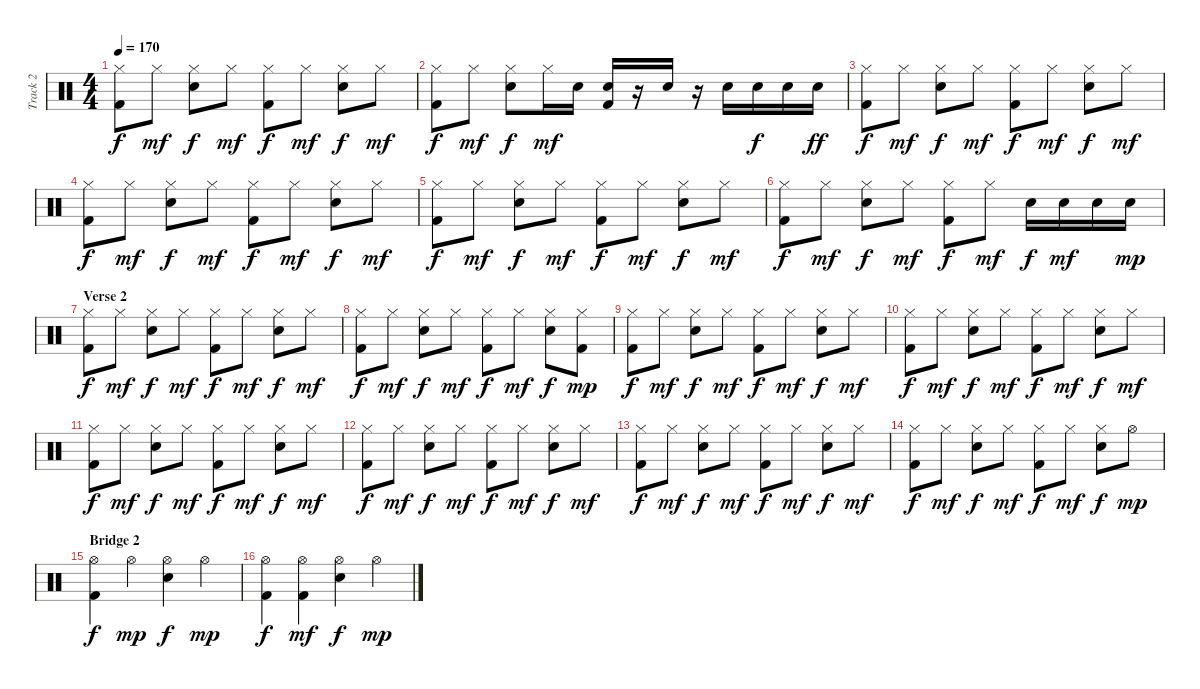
\track ("Track 2" "Track 2") {instrument percussion}
\staff {score}
\articulation defaults
\ts (4 4)
\tempo 170
\clef neutral
\ks c
("Hi-Hat (closed)" "Kick (hit) 2").8{dy f} "Hi-Hat (closed)".8{dy mf} ("Hi-Hat (closed)" "Electric Snare (hit)").8{dy f} "Hi-Hat (closed)".8{dy mf} ("Hi-Hat (closed)" "Kick (hit) 2").8{dy f} "Hi-Hat (closed)".8{dy mf} ("Hi-Hat (closed)" "Electric Snare (hit)").8{dy f} "Hi-Hat (closed)".8{dy mf} |
("Hi-Hat (closed)" "Kick (hit) 2").8{dy f} "Hi-Hat (closed)".8{dy mf} ("Hi-Hat (closed)" "Electric Snare (hit)").8{dy f} "Hi-Hat (closed)".16{dy mf} "Electric Snare (hit)".16 ("Electric Snare (hit)" "Kick (hit) 2").16 r.16 "Electric Snare (hit)".16 r.16 "Electric Snare (hit)".16 "Electric Snare (hit)".16{dy f} "Electric Snare (hit)".16 "Electric Snare (hit)".16{dy ff} |
("Hi-Hat (closed)" "Kick (hit) 2").8{dy f} "Hi-Hat (closed)".8{dy mf} ("Hi-Hat (closed)" "Electric Snare (hit)").8{dy f} "Hi-Hat (closed)".8{dy mf} ("Hi-Hat (closed)" "Kick (hit) 2").8{dy f} "Hi-Hat (closed)".8{dy mf} ("Hi-Hat (closed)" "Electric Snare (hit)").8{dy f} "Hi-Hat (closed)".8{dy mf} |
("Hi-Hat (closed)" "Kick (hit) 2").8{dy f} "Hi-Hat (closed)".8{dy mf} ("Hi-Hat (closed)" "Electric Snare (hit)").8{dy f} "Hi-Hat (closed)".8{dy mf} ("Hi-Hat (closed)" "Kick (hit) 2").8{dy f} "Hi-Hat (closed)".8{dy mf} ("Hi-Hat (closed)" "Electric Snare (hit)").8{dy f} "Hi-Hat (closed)".8{dy mf} |
("Hi-Hat (closed)" "Kick (hit) 2").8{dy f} "Hi-Hat (closed)".8{dy mf} ("Hi-Hat (closed)" "Electric Snare (hit)").8{dy f} "Hi-Hat (closed)".8{dy mf} ("Hi-Hat (closed)" "Kick (hit) 2").8{dy f} "Hi-Hat (closed)".8{dy mf} ("Hi-Hat (closed)" "Electric Snare (hit)").8{dy f} "Hi-Hat (closed)".8{dy mf} |
("Hi-Hat (closed)" "Kick (hit) 2").8{dy f} "Hi-Hat (closed)".8{dy mf} ("Hi-Hat (closed)" "Electric Snare (hit)").8{dy f} "Hi-Hat (closed)".8{dy mf} ("Hi-Hat (closed)" "Kick (hit) 2").8{dy f} "Hi-Hat (closed)".8{dy mf} "Electric Snare (hit)".16{dy f} "Electric Snare (hit)".16{dy mf} "Electric Snare (hit)".16 "Electric Snare (hit)".16{dy mp} |
\section ("" "Verse 2")
("Hi-Hat (closed)" "Kick (hit) 2").8{dy f} "Hi-Hat (closed)".8{dy mf} ("Hi-Hat (closed)" "Electric Snare (hit)").8{dy f} "Hi-Hat (closed)".8{dy mf} ("Hi-Hat (closed)" "Kick (hit) 2").8{dy f} "Hi-Hat (closed)".8{dy mf} ("Hi-Hat (closed)" "Electric Snare (hit)").8{dy f} "Hi-Hat (closed)".8{dy mf} |
("Hi-Hat (closed)" "Kick (hit) 2").8{dy f} "Hi-Hat (closed)".8{dy mf} ("Hi-Hat (closed)" "Electric Snare (hit)").8{dy f} "Hi-Hat (closed)".8{dy mf} ("Hi-Hat (closed)" "Kick (hit) 2").8{dy f} "Hi-Hat (closed)".8{dy mf} ("Hi-Hat (closed)" "Electric Snare (hit)").8{dy f} ("Hi-Hat (closed)" "Kick (hit) 2").8{dy mp} |
("Hi-Hat (closed)" "Kick (hit) 2").8{dy f} "Hi-Hat (closed)".8{dy mf} ("Hi-Hat (closed)" "Electric Snare (hit)").8{dy f} "Hi-Hat (closed)".8{dy mf} ("Hi-Hat (closed)" "Kick (hit) 2").8{dy f} "Hi-Hat (closed)".8{dy mf} ("Hi-Hat (closed)" "Electric Snare (hit)").8{dy f} "Hi-Hat (closed)".8{dy mf} |
("Hi-Hat (closed)" "Kick (hit) 2").8{dy f} "Hi-Hat (closed)".8{dy mf} ("Hi-Hat (closed)" "Electric Snare (hit)").8{dy f} "Hi-Hat (closed)".8{dy mf} ("Hi-Hat (closed)" "Kick (hit) 2").8{dy f} "Hi-Hat (closed)".8{dy mf} ("Hi-Hat (closed)" "Electric Snare (hit)").8{dy f} "Hi-Hat (closed)".8{dy mf} |
("Hi-Hat (closed)" "Kick (hit) 2").8{dy f} "Hi-Hat (closed)".8{dy mf} ("Hi-Hat (closed)" "Electric Snare (hit)").8{dy f} "Hi-Hat (closed)".8{dy mf} ("Hi-Hat (closed)" "Kick (hit) 2").8{dy f} "Hi-Hat (closed)".8{dy mf} ("Hi-Hat (closed)" "Electric Snare (hit)").8{dy f} "Hi-Hat (closed)".8{dy mf} |
("Hi-Hat (closed)" "Kick (hit) 2").8{dy f} "Hi-Hat (closed)".8{dy mf} ("Hi-Hat (closed)" "Electric Snare (hit)").8{dy f} "Hi-Hat (closed)".8{dy mf} ("Hi-Hat (closed)" "Kick (hit) 2").8{dy f} "Hi-Hat (closed)".8{dy mf} ("Hi-Hat (closed)" "Electric Snare (hit)").8{dy f} "Hi-Hat (closed)".8{dy mf} |
("Hi-Hat (closed)" "Kick (hit) 2").8{dy f} "Hi-Hat (closed)".8{dy mf} ("Hi-Hat (closed)" "Electric Snare (hit)").8{dy f} "Hi-Hat (closed)".8{dy mf} ("Hi-Hat (closed)" "Kick (hit) 2").8{dy f} "Hi-Hat (closed)".8{dy mf} ("Hi-Hat (closed)" "Electric Snare (hit)").8{dy f} "Hi-Hat (closed)".8{dy mf} |
("Hi-Hat (closed)" "Kick (hit) 2").8{dy f} "Hi-Hat (closed)".8{dy mf} ("Hi-Hat (closed)" "Electric Snare (hit)").8{dy f} "Hi-Hat (closed)".8{dy mf} ("Hi-Hat (closed)" "Kick (hit) 2").8{dy f} "Hi-Hat (closed)".8{dy mf} ("Hi-Hat (closed)" "Electric Snare (hit)").8{dy f} "Hi-Hat (open)".8{dy mp} |
\section ("" "Bridge 2")
("Hi-Hat (open)" "Kick (hit) 2").4{dy f} "Hi-Hat (open)".4{dy mp} ("Hi-Hat (open)" "Electric Snare (hit)").4{dy f} "Hi-Hat (open)".4{dy mp} |
("Hi-Hat (open)" "Kick (hit) 2").4{dy f} ("Hi-Hat (open)" "Kick (hit) 2").4{dy mf} ("Hi-Hat (open)" "Electric Snare (hit)").4{dy f} "Hi-Hat (open)".4{dy mp}
